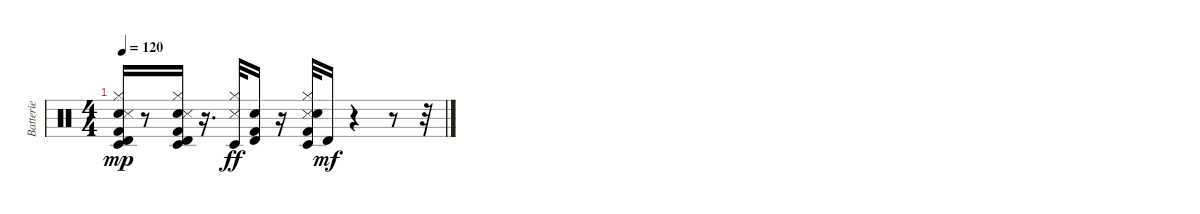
\track ("Batterie" "Batterie") {instrument percussion}
\staff {score}
\articulation defaults
\ts (4 4)
\tempo 120
\clef neutral
\ks c
("Hand Clap (hit)" "Timbale low (hit)" "Kick (hit) 2" "Hi-Hat (closed)" "Snare (side stick) 3" "Timbale high (hit)").16{dy mp} r.8 ("Hand Clap (hit)" "Timbale low (hit)" "Kick (hit) 2" "Hi-Hat (closed)" "Snare (side stick) 3" "Timbale high (hit)").16 r.16{d} ("Snare (side stick) 3" "Timbale low (hit)" "Hi-Hat (closed)").32{dy ff} ("Hand Clap (hit)" "Timbale high (hit)" "Kick (hit) 2").16 r.16 ("Hi-Hat (closed)" "Snare (side stick) 3" "Kick (hit) 2" "Hand Clap (hit)" "Timbale low (hit)").32 "Timbale high (hit)".16{dy mf} r.4 r.8 r.32
